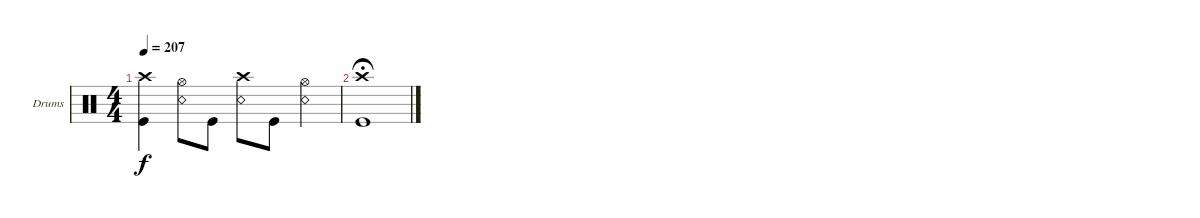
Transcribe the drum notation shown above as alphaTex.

\defaultSystemsLayout 4
\bracketExtendMode groupsimilarinstruments
\firstSystemTrackNameOrientation horizontal
\otherSystemsTrackNameOrientation horizontal
\track ("Drums" "Drums") {instrument percussion}
\staff {score}
\articulation defaults
\ts (4 4)
\tempo 207
\clef neutral
\ks c
("Kick (hit)" "Crash high (hit)").4{dy f} ("Hi-Hat (open)" "Snare (rim shot)").8 "Kick (hit)".8 ("Snare (rim shot)" "Crash high (hit)").8 "Kick (hit)".8 ("Hi-Hat (open)" "Snare (rim shot)").4 |
("Kick (hit)" "Crash high (hit)").1{fermata (medium 1)}
